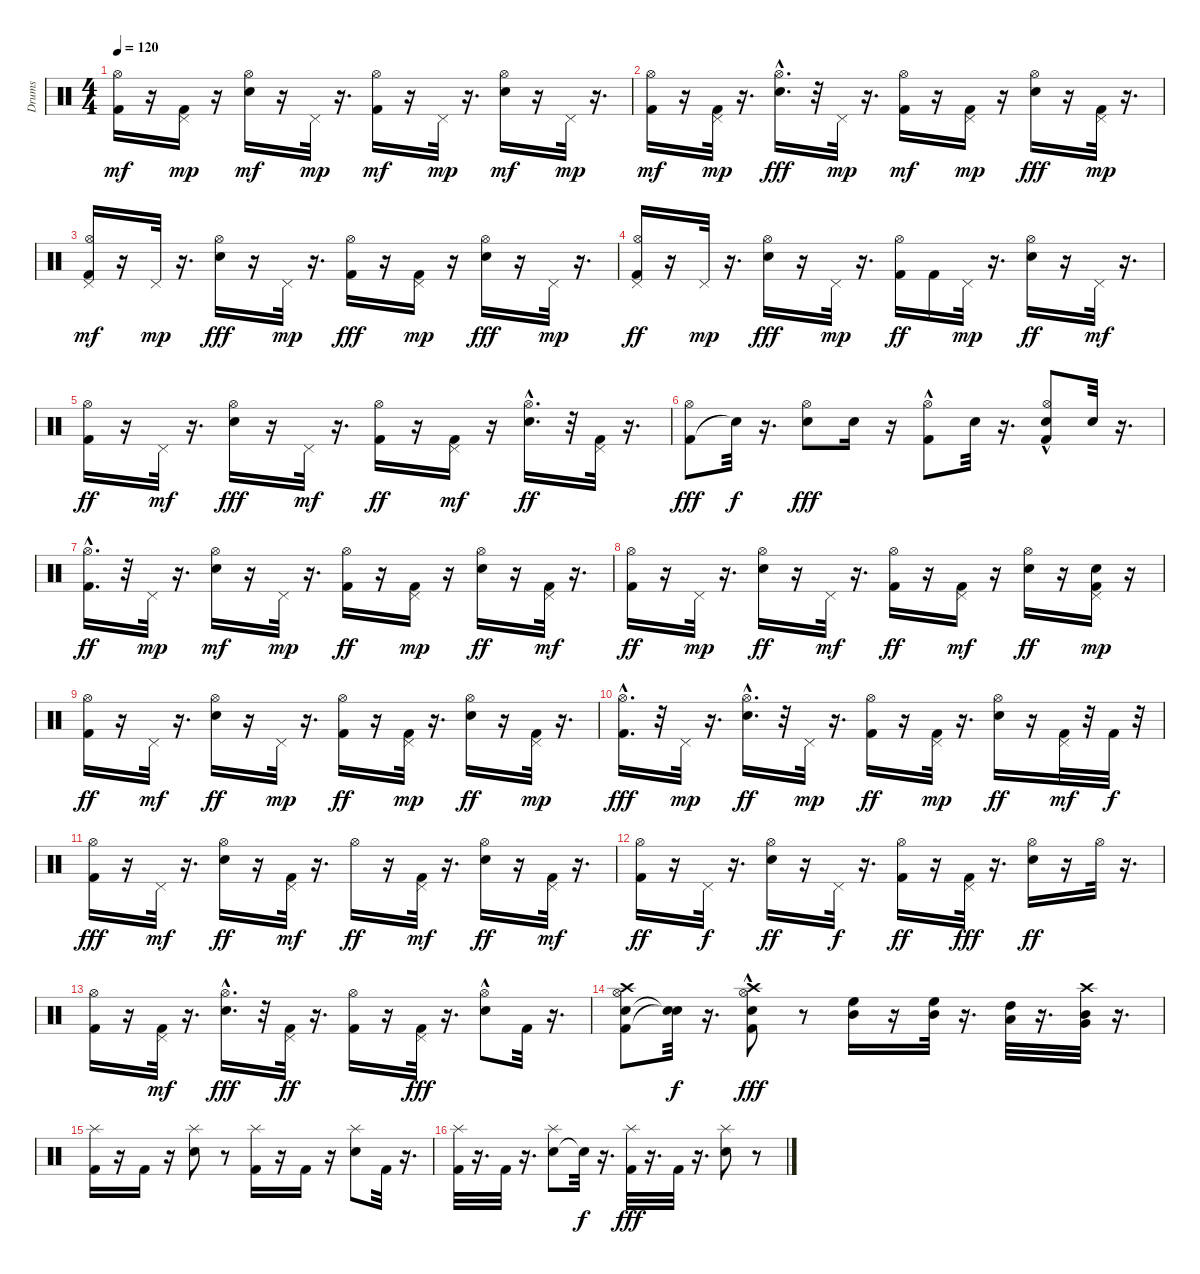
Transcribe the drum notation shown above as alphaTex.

\track ("Drums" "Drums") {instrument percussion}
\staff {score}
\articulation defaults
\ts (4 4)
\tempo 120
\clef neutral
\ks c
("Kick (hit) 2" "Hi-Hat (open)").16{dy mf} r.16 ("Kick (hit) 2" "Pedal Hi-Hat (hit)").16{dy mp} r.16 ("Electric Snare (hit)" "Hi-Hat (open)").16{dy mf} r.16 "Pedal Hi-Hat (hit)".32{dy mp} r.16{d} ("Kick (hit) 2" "Hi-Hat (open)").16{dy mf} r.16 "Pedal Hi-Hat (hit)".32{dy mp} r.16{d} ("Electric Snare (hit)" "Hi-Hat (open)").16{dy mf} r.16 "Pedal Hi-Hat (hit)".32{dy mp} r.16{d} |
("Kick (hit) 2" "Hi-Hat (open)").16{dy mf} r.16 ("Kick (hit) 2" "Pedal Hi-Hat (hit)").32{dy mp} r.16{d} ("Electric Snare (hit)"{hac} "Hi-Hat (open)").16{d dy fff} r.32 "Pedal Hi-Hat (hit)".32{dy mp} r.16{d} ("Kick (hit) 2" "Hi-Hat (open)").16{dy mf} r.16 ("Kick (hit) 2" "Pedal Hi-Hat (hit)").16{dy mp} r.16 ("Electric Snare (hit)" "Hi-Hat (open)").16{dy fff} r.16 ("Kick (hit) 2" "Pedal Hi-Hat (hit)").32{dy mp} r.16{d} |
("Kick (hit) 2" "Pedal Hi-Hat (hit)" "Hi-Hat (open)").16{dy mf} r.16 "Pedal Hi-Hat (hit)".32{dy mp} r.16{d} ("Electric Snare (hit)" "Hi-Hat (open)").16{dy fff} r.16 "Pedal Hi-Hat (hit)".32{dy mp} r.16{d} ("Kick (hit) 2" "Hi-Hat (open)").16{dy fff} r.16 ("Kick (hit) 2" "Pedal Hi-Hat (hit)").16{dy mp} r.16 ("Electric Snare (hit)" "Hi-Hat (open)").16{dy fff} r.16 "Pedal Hi-Hat (hit)".32{dy mp} r.16{d} |
("Kick (hit) 2" "Pedal Hi-Hat (hit)" "Hi-Hat (open)").16{dy ff} r.16 "Pedal Hi-Hat (hit)".32{dy mp} r.16{d} ("Electric Snare (hit)" "Hi-Hat (open)").16{dy fff} r.16 "Pedal Hi-Hat (hit)".32{dy mp} r.16{d} ("Kick (hit) 2" "Hi-Hat (open)").16{dy ff} "Kick (hit) 2".16 "Pedal Hi-Hat (hit)".32{dy mp} r.16{d} ("Electric Snare (hit)" "Hi-Hat (open)").16{dy ff} r.16 "Pedal Hi-Hat (hit)".32{dy mf} r.16{d} |
("Kick (hit) 2" "Hi-Hat (open)").16{dy ff} r.16 "Pedal Hi-Hat (hit)".32{dy mf} r.16{d} ("Electric Snare (hit)" "Hi-Hat (open)").16{dy fff} r.16 "Pedal Hi-Hat (hit)".32{dy mf} r.16{d} ("Kick (hit) 2" "Hi-Hat (open)").16{dy ff} r.16 ("Kick (hit) 2" "Pedal Hi-Hat (hit)").16{dy mf} r.16 ("Electric Snare (hit)"{hac} "Hi-Hat (open)").16{d dy ff} r.32 ("Kick (hit) 2" "Pedal Hi-Hat (hit)").32 r.16{d} |
("Kick (hit) 2" "Hi-Hat (open)").8{dy fff} "Snare (hit)"{t}.32{dy f} r.16{d} ("Electric Snare (hit)" "Hi-Hat (open)").8{dy fff} "Electric Snare (hit)".16 r.16 ("Kick (hit) 2"{hac} "Hi-Hat (open)").8 "Electric Snare (hit)".32 r.16{d} ("Kick (hit) 2"{hac} "Electric Snare (hit)" "Hi-Hat (open)"{hac}).8 "Electric Snare (hit)".32 r.16{d} |
("Kick (hit) 2" "Hi-Hat (open)"{hac}).16{d dy ff} r.32 "Pedal Hi-Hat (hit)".32{dy mp} r.16{d} ("Electric Snare (hit)" "Hi-Hat (open)").16{dy mf} r.16 "Pedal Hi-Hat (hit)".32{dy mp} r.16{d} ("Kick (hit) 2" "Hi-Hat (open)").16{dy ff} r.16 ("Kick (hit) 2" "Pedal Hi-Hat (hit)").16{dy mp} r.16 ("Electric Snare (hit)" "Hi-Hat (open)").16{dy ff} r.16 ("Kick (hit) 2" "Pedal Hi-Hat (hit)").32{dy mf} r.16{d} |
("Kick (hit) 2" "Hi-Hat (open)").16{dy ff} r.16 "Pedal Hi-Hat (hit)".32{dy mp} r.16{d} ("Electric Snare (hit)" "Hi-Hat (open)").16{dy ff} r.16 "Pedal Hi-Hat (hit)".32{dy mf} r.16{d} ("Kick (hit) 2" "Hi-Hat (open)").16{dy ff} r.16 ("Kick (hit) 2" "Pedal Hi-Hat (hit)").16{dy mf} r.16 ("Electric Snare (hit)" "Hi-Hat (open)").16{dy ff} r.16 ("Kick (hit) 2" "Electric Snare (hit)" "Pedal Hi-Hat (hit)").16{dy mp} r.16 |
("Kick (hit) 2" "Hi-Hat (open)").16{dy ff} r.16 "Pedal Hi-Hat (hit)".32{dy mf} r.16{d} ("Electric Snare (hit)" "Hi-Hat (open)").16{dy ff} r.16 "Pedal Hi-Hat (hit)".32{dy mp} r.16{d} ("Kick (hit) 2" "Hi-Hat (open)").16{dy ff} r.16 ("Kick (hit) 2" "Pedal Hi-Hat (hit)").32{dy mp} r.16{d} ("Electric Snare (hit)" "Hi-Hat (open)").16{dy ff} r.16 ("Kick (hit) 2" "Pedal Hi-Hat (hit)").32{dy mp} r.16{d} |
("Kick (hit) 2" "Hi-Hat (open)"{hac}).16{d dy fff} r.32 "Pedal Hi-Hat (hit)".32{dy mp} r.16{d} ("Electric Snare (hit)"{hac} "Hi-Hat (open)").16{d dy ff} r.32 "Pedal Hi-Hat (hit)".32{dy mp} r.16{d} ("Kick (hit) 2" "Hi-Hat (open)").16{dy ff} r.16 ("Kick (hit) 2" "Pedal Hi-Hat (hit)").32{dy mp} r.16{d} ("Electric Snare (hit)" "Hi-Hat (open)").16{dy ff} r.16 ("Kick (hit) 2" "Pedal Hi-Hat (hit)").32{dy mf} r.32 "Kick (hit) 2".32{dy f} r.32 |
("Kick (hit) 2" "Hi-Hat (open)").16{dy fff} r.16 "Pedal Hi-Hat (hit)".32{dy mf} r.16{d} ("Electric Snare (hit)" "Hi-Hat (open)").16{dy ff} r.16 ("Kick (hit) 2" "Pedal Hi-Hat (hit)").32{dy mf} r.16{d} "Hi-Hat (open)".16{dy ff} r.16 ("Kick (hit) 2" "Pedal Hi-Hat (hit)").32{dy mf} r.16{d} ("Electric Snare (hit)" "Hi-Hat (open)").16{dy ff} r.16 ("Kick (hit) 2" "Pedal Hi-Hat (hit)").32{dy mf} r.16{d} |
("Kick (hit) 2" "Hi-Hat (open)").16{dy ff} r.16 "Pedal Hi-Hat (hit)".32{dy f} r.16{d} ("Electric Snare (hit)" "Hi-Hat (open)").16{dy ff} r.16 "Pedal Hi-Hat (hit)".32{dy f} r.16{d} ("Kick (hit) 2" "Hi-Hat (open)").16{dy ff} r.16 ("Kick (hit) 2" "Pedal Hi-Hat (hit)").32{dy fff} r.16{d} ("Electric Snare (hit)" "Hi-Hat (open)").16{dy ff} r.16 "Hi-Hat (open)".32 r.16{d} |
("Kick (hit) 2" "Hi-Hat (open)").16 r.16 ("Kick (hit) 2" "Pedal Hi-Hat (hit)").32{dy mf} r.16{d} ("Electric Snare (hit)"{hac} "Hi-Hat (open)").16{d dy fff} r.32 ("Kick (hit) 2" "Pedal Hi-Hat (hit)").32{dy ff} r.16{d} ("Kick (hit) 2" "Hi-Hat (open)").16 r.16 ("Kick (hit) 2" "Pedal Hi-Hat (hit)").32{dy fff} r.16{d} ("Electric Snare (hit)"{hac} "Hi-Hat (open)").8 "Kick (hit) 2".32 r.16{d} |
("Kick (hit) 2" "Electric Snare (hit)" "Crash high (hit)" "Hi-Hat (open)").8 ("Snare (hit)"{t} "Snare (hit)"{t}).32{dy f} r.16{d} ("Kick (hit) 2" "Electric Snare (hit)"{hac} "Crash high (hit)" "Hi-Hat (open)"{hac}).8{dy fff} r.8 ("Mid Tom (hit)" "High Floor Tom (hit)").16 r.16 ("Mid Tom (hit)" "High Floor Tom (hit)").32 r.16{d} ("Low Tom (hit)" "High Tom (hit)").32 r.16{d} ("Very Low Tom (hit)" "Mid Tom (hit)" "Crash high (hit)").32 r.16{d} |
("Kick (hit) 2" "Splash (hit)").16 r.16 "Kick (hit) 2".16 r.16 ("Electric Snare (hit)" "Splash (hit)").8 r.8 ("Kick (hit) 2" "Splash (hit)").16 r.16 "Kick (hit) 2".16 r.16 ("Electric Snare (hit)" "Splash (hit)").8 "Kick (hit) 2".32 r.16{d} |
("Kick (hit) 2" "Splash (hit)").32 r.16{d} "Kick (hit) 2".32 r.16{d} ("Electric Snare (hit)" "Splash (hit)").8 "Snare (hit)"{t}.32{dy f} r.16{d} ("Kick (hit) 2" "Splash (hit)").32{dy fff} r.16{d} "Kick (hit) 2".32 r.16{d} ("Electric Snare (hit)" "Splash (hit)").8 r.8
